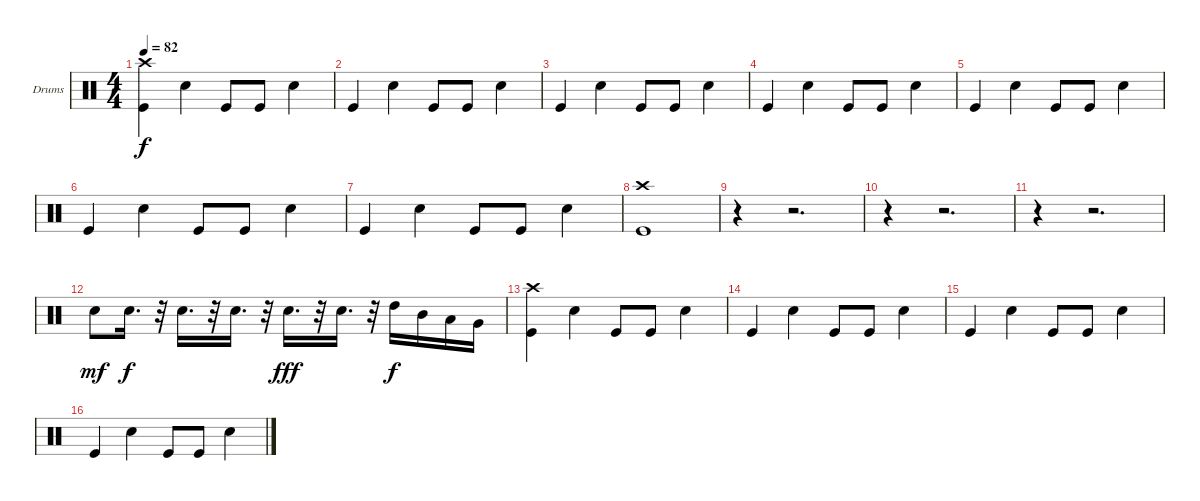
\bracketExtendMode groupsimilarinstruments
\firstSystemTrackNameOrientation horizontal
\otherSystemsTrackNameOrientation horizontal
\track ("Drumkit" "Drums") {instrument percussion}
\staff {score}
\articulation defaults
\ts (4 4)
\tempo 82
\clef neutral
\ks c
("Kick (hit)" "Crash high (hit)").4{dy f} "Snare (hit) 2".4 "Kick (hit)".8 "Kick (hit)".8 "Snare (hit) 2".4 |
"Kick (hit)".4 "Snare (hit) 2".4 "Kick (hit)".8 "Kick (hit)".8 "Snare (hit) 2".4 |
"Kick (hit)".4 "Snare (hit) 2".4 "Kick (hit)".8 "Kick (hit)".8 "Snare (hit) 2".4 |
"Kick (hit)".4 "Snare (hit) 2".4 "Kick (hit)".8 "Kick (hit)".8 "Snare (hit) 2".4 |
"Kick (hit)".4 "Snare (hit) 2".4 "Kick (hit)".8 "Kick (hit)".8 "Snare (hit) 2".4 |
"Kick (hit)".4 "Snare (hit) 2".4 "Kick (hit)".8 "Kick (hit)".8 "Snare (hit) 2".4 |
"Kick (hit)".4 "Snare (hit) 2".4 "Kick (hit)".8 "Kick (hit)".8 "Snare (hit) 2".4 |
("Kick (hit)" "Crash high (hit)").1 |
r.4 r.2{d} |
r.4 r.2{d} |
r.4 r.2{d} |
"Snare (hit) 2".8{dy mf} "Snare (hit) 2".16{d dy f} r.32 "Snare (hit) 2".16{d} r.32 "Snare (hit) 2".16{d} r.32 "Snare (hit) 2".16{d dy fff} r.32 "Snare (hit) 2".16{d} r.32 "High Tom (hit)".16{dy f} "Mid Tom (hit)".16 "Low Tom (hit)".16 "Very Low Tom (hit)".16 |
("Kick (hit)" "Crash high (hit)").4 "Snare (hit) 2".4 "Kick (hit)".8 "Kick (hit)".8 "Snare (hit) 2".4 |
"Kick (hit)".4 "Snare (hit) 2".4 "Kick (hit)".8 "Kick (hit)".8 "Snare (hit) 2".4 |
"Kick (hit)".4 "Snare (hit) 2".4 "Kick (hit)".8 "Kick (hit)".8 "Snare (hit) 2".4 |
"Kick (hit)".4 "Snare (hit) 2".4 "Kick (hit)".8 "Kick (hit)".8 "Snare (hit) 2".4
